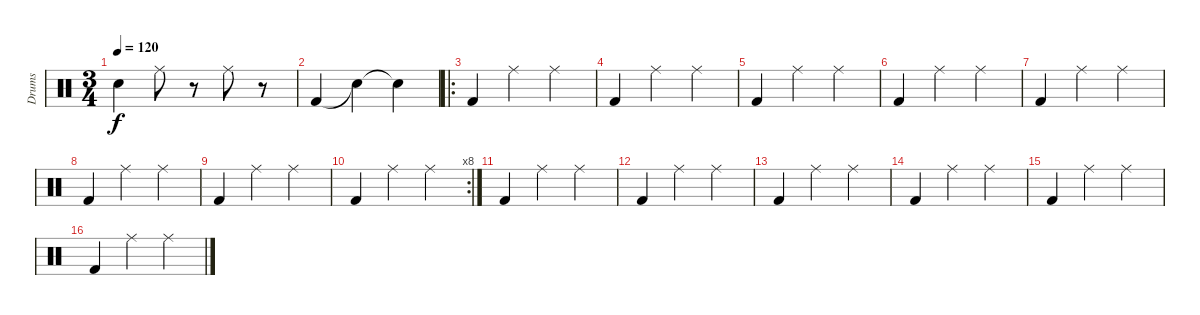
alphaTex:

\track ("Drums" "Drums") {instrument percussion}
\staff {score}
\articulation defaults
\ts (3 4)
\tempo 120
\clef neutral
\ks c "Snare (hit) 2".4{dy f} "Ride (middle)".8
r.8 "Ride (middle)".8 r.8 |
"Kick (hit) 2".4 "Snare (hit)"{t}.4 "Snare (hit)"{t}.4 |
\ro "Kick (hit) 2".4 "Ride (middle)".4 "Ride (middle)".4
|
"Kick (hit) 2".4 "Ride (middle)".4 "Ride (middle)".4 |
"Kick (hit) 2".4 "Ride (middle)".4 "Ride (middle)".4 |
"Kick (hit) 2".4 "Ride (middle)".4 "Ride (middle)".4 |
"Kick (hit) 2".4 "Ride (middle)".4 "Ride (middle)".4 |
"Kick (hit) 2".4 "Ride (middle)".4 "Ride (middle)".4 |
"Kick (hit) 2".4 "Ride (middle)".4 "Ride (middle)".4 |
\rc 8 "Kick (hit) 2".4 "Ride (middle)".4 "Ride (middle)".4
|
"Kick (hit) 2".4 "Ride (middle)".4 "Ride (middle)".4 |
"Kick (hit) 2".4 "Ride (middle)".4 "Ride (middle)".4 |
"Kick (hit) 2".4 "Ride (middle)".4 "Ride (middle)".4 |
"Kick (hit) 2".4 "Ride (middle)".4 "Ride (middle)".4 |
"Kick (hit) 2".4 "Ride (middle)".4 "Ride (middle)".4 |
"Kick (hit) 2".4 "Ride (middle)".4 "Ride (middle)".4
